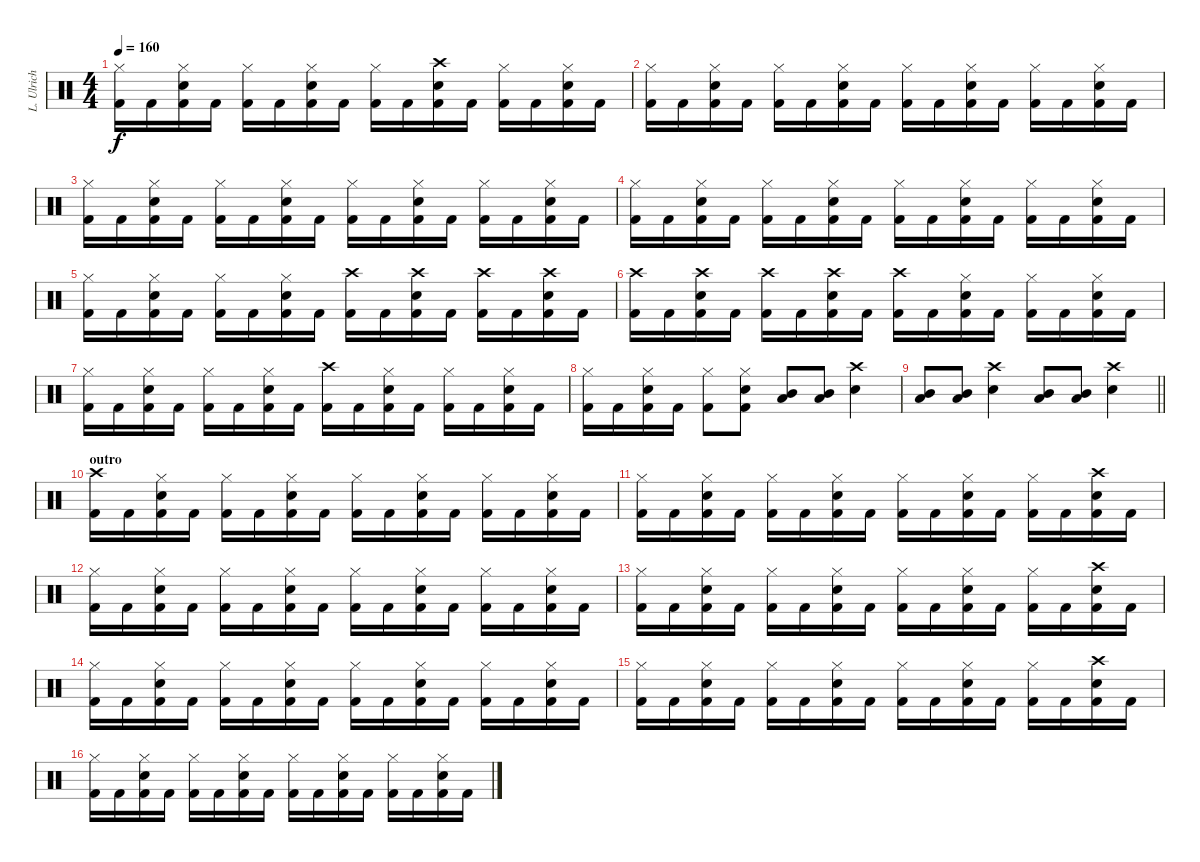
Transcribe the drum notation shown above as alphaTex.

\track ("L. Ulrich - Drums" "L. Ulrich ") {instrument percussion}
\staff {score}
\articulation defaults
\ts (4 4)
\tempo 160
\clef neutral
\ks c
("Hi-Hat (closed)" "Kick (hit) 2").16{dy f} "Kick (hit) 2".16 ("Hi-Hat (closed)" "Snare (hit) 2" "Kick (hit) 2").16 "Kick (hit) 2".16 ("Hi-Hat (closed)" "Kick (hit) 2").16 "Kick (hit) 2".16 ("Hi-Hat (closed)" "Snare (hit) 2" "Kick (hit) 2").16 "Kick (hit) 2".16 ("Hi-Hat (closed)" "Kick (hit) 2").16 "Kick (hit) 2".16 ("Crash high (hit)" "Snare (hit) 2" "Kick (hit) 2").16 "Kick (hit) 2".16 ("Hi-Hat (closed)" "Kick (hit) 2").16 "Kick (hit) 2".16 ("Hi-Hat (closed)" "Snare (hit) 2" "Kick (hit) 2").16 "Kick (hit) 2".16 |
("Hi-Hat (closed)" "Kick (hit) 2").16 "Kick (hit) 2".16 ("Hi-Hat (closed)" "Snare (hit) 2" "Kick (hit) 2").16 "Kick (hit) 2".16 ("Hi-Hat (closed)" "Kick (hit) 2").16 "Kick (hit) 2".16 ("Hi-Hat (closed)" "Snare (hit) 2" "Kick (hit) 2").16 "Kick (hit) 2".16 ("Hi-Hat (closed)" "Kick (hit) 2").16 "Kick (hit) 2".16 ("Hi-Hat (closed)" "Snare (hit) 2" "Kick (hit) 2").16 "Kick (hit) 2".16 ("Hi-Hat (closed)" "Kick (hit) 2").16 "Kick (hit) 2".16 ("Hi-Hat (closed)" "Snare (hit) 2" "Kick (hit) 2").16 "Kick (hit) 2".16 |
("Hi-Hat (closed)" "Kick (hit) 2").16 "Kick (hit) 2".16 ("Hi-Hat (closed)" "Snare (hit) 2" "Kick (hit) 2").16 "Kick (hit) 2".16 ("Hi-Hat (closed)" "Kick (hit) 2").16 "Kick (hit) 2".16 ("Hi-Hat (closed)" "Snare (hit) 2" "Kick (hit) 2").16 "Kick (hit) 2".16 ("Hi-Hat (closed)" "Kick (hit) 2").16 "Kick (hit) 2".16 ("Hi-Hat (closed)" "Snare (hit) 2" "Kick (hit) 2").16 "Kick (hit) 2".16 ("Hi-Hat (closed)" "Kick (hit) 2").16 "Kick (hit) 2".16 ("Hi-Hat (closed)" "Snare (hit) 2" "Kick (hit) 2").16 "Kick (hit) 2".16 |
("Hi-Hat (closed)" "Kick (hit) 2").16 "Kick (hit) 2".16 ("Hi-Hat (closed)" "Snare (hit) 2" "Kick (hit) 2").16 "Kick (hit) 2".16 ("Hi-Hat (closed)" "Kick (hit) 2").16 "Kick (hit) 2".16 ("Hi-Hat (closed)" "Snare (hit) 2" "Kick (hit) 2").16 "Kick (hit) 2".16 ("Hi-Hat (closed)" "Kick (hit) 2").16 "Kick (hit) 2".16 ("Hi-Hat (closed)" "Snare (hit) 2" "Kick (hit) 2").16 "Kick (hit) 2".16 ("Hi-Hat (closed)" "Kick (hit) 2").16 "Kick (hit) 2".16 ("Hi-Hat (closed)" "Snare (hit) 2" "Kick (hit) 2").16 "Kick (hit) 2".16 |
("Hi-Hat (closed)" "Kick (hit) 2").16 "Kick (hit) 2".16 ("Hi-Hat (closed)" "Snare (hit) 2" "Kick (hit) 2").16 "Kick (hit) 2".16 ("Hi-Hat (closed)" "Kick (hit) 2").16 "Kick (hit) 2".16 ("Hi-Hat (closed)" "Snare (hit) 2" "Kick (hit) 2").16 "Kick (hit) 2".16 ("Crash high (hit)" "Kick (hit) 2").16 "Kick (hit) 2".16 ("Crash high (hit)" "Snare (hit) 2" "Kick (hit) 2").16 "Kick (hit) 2".16 ("Crash high (hit)" "Kick (hit) 2").16 "Kick (hit) 2".16 ("Crash high (hit)" "Snare (hit) 2" "Kick (hit) 2").16 "Kick (hit) 2".16 |
("Crash high (hit)" "Kick (hit) 2").16 "Kick (hit) 2".16 ("Crash high (hit)" "Snare (hit) 2" "Kick (hit) 2").16 "Kick (hit) 2".16 ("Crash high (hit)" "Kick (hit) 2").16 "Kick (hit) 2".16 ("Crash high (hit)" "Snare (hit) 2" "Kick (hit) 2").16 "Kick (hit) 2".16 ("Crash high (hit)" "Kick (hit) 2").16 "Kick (hit) 2".16 ("Hi-Hat (closed)" "Snare (hit) 2" "Kick (hit) 2").16 "Kick (hit) 2".16 ("Hi-Hat (closed)" "Kick (hit) 2").16 "Kick (hit) 2".16 ("Hi-Hat (closed)" "Snare (hit) 2" "Kick (hit) 2").16 "Kick (hit) 2".16 |
("Hi-Hat (closed)" "Kick (hit) 2").16 "Kick (hit) 2".16 ("Hi-Hat (closed)" "Snare (hit) 2" "Kick (hit) 2").16 "Kick (hit) 2".16 ("Hi-Hat (closed)" "Kick (hit) 2").16 "Kick (hit) 2".16 ("Hi-Hat (closed)" "Snare (hit) 2" "Kick (hit) 2").16 "Kick (hit) 2".16 ("Crash high (hit)" "Kick (hit) 2").16 "Kick (hit) 2".16 ("Hi-Hat (closed)" "Snare (hit) 2" "Kick (hit) 2").16 "Kick (hit) 2".16 ("Hi-Hat (closed)" "Kick (hit) 2").16 "Kick (hit) 2".16 ("Hi-Hat (closed)" "Snare (hit) 2" "Kick (hit) 2").16 "Kick (hit) 2".16 |
("Hi-Hat (closed)" "Kick (hit) 2").16 "Kick (hit) 2".16 ("Hi-Hat (closed)" "Snare (hit) 2" "Kick (hit) 2").16 "Kick (hit) 2".16 ("Hi-Hat (closed)" "Kick (hit) 2").8 ("Hi-Hat (closed)" "Snare (hit) 2" "Kick (hit) 2").8 ("Mid Tom (hit)" "Low Tom (hit)").8 ("Mid Tom (hit)" "Low Tom (hit)").8 ("Crash high (hit)" "Snare (hit) 2").4 |
\barLineRight lightlight
("Mid Tom (hit)" "Low Tom (hit)").8 ("Mid Tom (hit)" "Low Tom (hit)").8 ("Crash high (hit)" "Snare (hit) 2").4 ("Mid Tom (hit)" "Low Tom (hit)").8 ("Mid Tom (hit)" "Low Tom (hit)").8 ("Crash high (hit)" "Snare (hit) 2").4 |
\section ("" "outro")
("Crash high (hit)" "Kick (hit) 2").16 "Kick (hit) 2".16 ("Hi-Hat (closed)" "Snare (hit) 2" "Kick (hit) 2").16 "Kick (hit) 2".16 ("Hi-Hat (closed)" "Kick (hit) 2").16 "Kick (hit) 2".16 ("Hi-Hat (closed)" "Snare (hit) 2" "Kick (hit) 2").16 "Kick (hit) 2".16 ("Hi-Hat (closed)" "Kick (hit) 2").16 "Kick (hit) 2".16 ("Hi-Hat (closed)" "Snare (hit) 2" "Kick (hit) 2").16 "Kick (hit) 2".16 ("Hi-Hat (closed)" "Kick (hit) 2").16 "Kick (hit) 2".16 ("Hi-Hat (closed)" "Snare (hit) 2" "Kick (hit) 2").16 "Kick (hit) 2".16 |
("Hi-Hat (closed)" "Kick (hit) 2").16 "Kick (hit) 2".16 ("Hi-Hat (closed)" "Snare (hit) 2" "Kick (hit) 2").16 "Kick (hit) 2".16 ("Hi-Hat (closed)" "Kick (hit) 2").16 "Kick (hit) 2".16 ("Hi-Hat (closed)" "Snare (hit) 2" "Kick (hit) 2").16 "Kick (hit) 2".16 ("Hi-Hat (closed)" "Kick (hit) 2").16 "Kick (hit) 2".16 ("Hi-Hat (closed)" "Snare (hit) 2" "Kick (hit) 2").16 "Kick (hit) 2".16 ("Hi-Hat (closed)" "Kick (hit) 2").16 "Kick (hit) 2".16 ("Crash high (hit)" "Snare (hit) 2" "Kick (hit) 2").16 "Kick (hit) 2".16 |
("Hi-Hat (closed)" "Kick (hit) 2").16 "Kick (hit) 2".16 ("Hi-Hat (closed)" "Snare (hit) 2" "Kick (hit) 2").16 "Kick (hit) 2".16 ("Hi-Hat (closed)" "Kick (hit) 2").16 "Kick (hit) 2".16 ("Hi-Hat (closed)" "Snare (hit) 2" "Kick (hit) 2").16 "Kick (hit) 2".16 ("Hi-Hat (closed)" "Kick (hit) 2").16 "Kick (hit) 2".16 ("Hi-Hat (closed)" "Snare (hit) 2" "Kick (hit) 2").16 "Kick (hit) 2".16 ("Hi-Hat (closed)" "Kick (hit) 2").16 "Kick (hit) 2".16 ("Hi-Hat (closed)" "Snare (hit) 2" "Kick (hit) 2").16 "Kick (hit) 2".16 |
("Hi-Hat (closed)" "Kick (hit) 2").16 "Kick (hit) 2".16 ("Hi-Hat (closed)" "Snare (hit) 2" "Kick (hit) 2").16 "Kick (hit) 2".16 ("Hi-Hat (closed)" "Kick (hit) 2").16 "Kick (hit) 2".16 ("Hi-Hat (closed)" "Snare (hit) 2" "Kick (hit) 2").16 "Kick (hit) 2".16 ("Hi-Hat (closed)" "Kick (hit) 2").16 "Kick (hit) 2".16 ("Hi-Hat (closed)" "Snare (hit) 2" "Kick (hit) 2").16 "Kick (hit) 2".16 ("Hi-Hat (closed)" "Kick (hit) 2").16 "Kick (hit) 2".16 ("Crash high (hit)" "Snare (hit) 2" "Kick (hit) 2").16 "Kick (hit) 2".16 |
("Hi-Hat (closed)" "Kick (hit) 2").16 "Kick (hit) 2".16 ("Hi-Hat (closed)" "Snare (hit) 2" "Kick (hit) 2").16 "Kick (hit) 2".16 ("Hi-Hat (closed)" "Kick (hit) 2").16 "Kick (hit) 2".16 ("Hi-Hat (closed)" "Snare (hit) 2" "Kick (hit) 2").16 "Kick (hit) 2".16 ("Hi-Hat (closed)" "Kick (hit) 2").16 "Kick (hit) 2".16 ("Hi-Hat (closed)" "Snare (hit) 2" "Kick (hit) 2").16 "Kick (hit) 2".16 ("Hi-Hat (closed)" "Kick (hit) 2").16 "Kick (hit) 2".16 ("Hi-Hat (closed)" "Snare (hit) 2" "Kick (hit) 2").16 "Kick (hit) 2".16 |
("Hi-Hat (closed)" "Kick (hit) 2").16 "Kick (hit) 2".16 ("Hi-Hat (closed)" "Snare (hit) 2" "Kick (hit) 2").16 "Kick (hit) 2".16 ("Hi-Hat (closed)" "Kick (hit) 2").16 "Kick (hit) 2".16 ("Hi-Hat (closed)" "Snare (hit) 2" "Kick (hit) 2").16 "Kick (hit) 2".16 ("Hi-Hat (closed)" "Kick (hit) 2").16 "Kick (hit) 2".16 ("Hi-Hat (closed)" "Snare (hit) 2" "Kick (hit) 2").16 "Kick (hit) 2".16 ("Hi-Hat (closed)" "Kick (hit) 2").16 "Kick (hit) 2".16 ("Crash high (hit)" "Snare (hit) 2" "Kick (hit) 2").16 "Kick (hit) 2".16 |
("Hi-Hat (closed)" "Kick (hit) 2").16 "Kick (hit) 2".16 ("Hi-Hat (closed)" "Snare (hit) 2" "Kick (hit) 2").16 "Kick (hit) 2".16 ("Hi-Hat (closed)" "Kick (hit) 2").16 "Kick (hit) 2".16 ("Hi-Hat (closed)" "Snare (hit) 2" "Kick (hit) 2").16 "Kick (hit) 2".16 ("Hi-Hat (closed)" "Kick (hit) 2").16 "Kick (hit) 2".16 ("Hi-Hat (closed)" "Snare (hit) 2" "Kick (hit) 2").16 "Kick (hit) 2".16 ("Hi-Hat (closed)" "Kick (hit) 2").16 "Kick (hit) 2".16 ("Hi-Hat (closed)" "Snare (hit) 2" "Kick (hit) 2").16 "Kick (hit) 2".16
